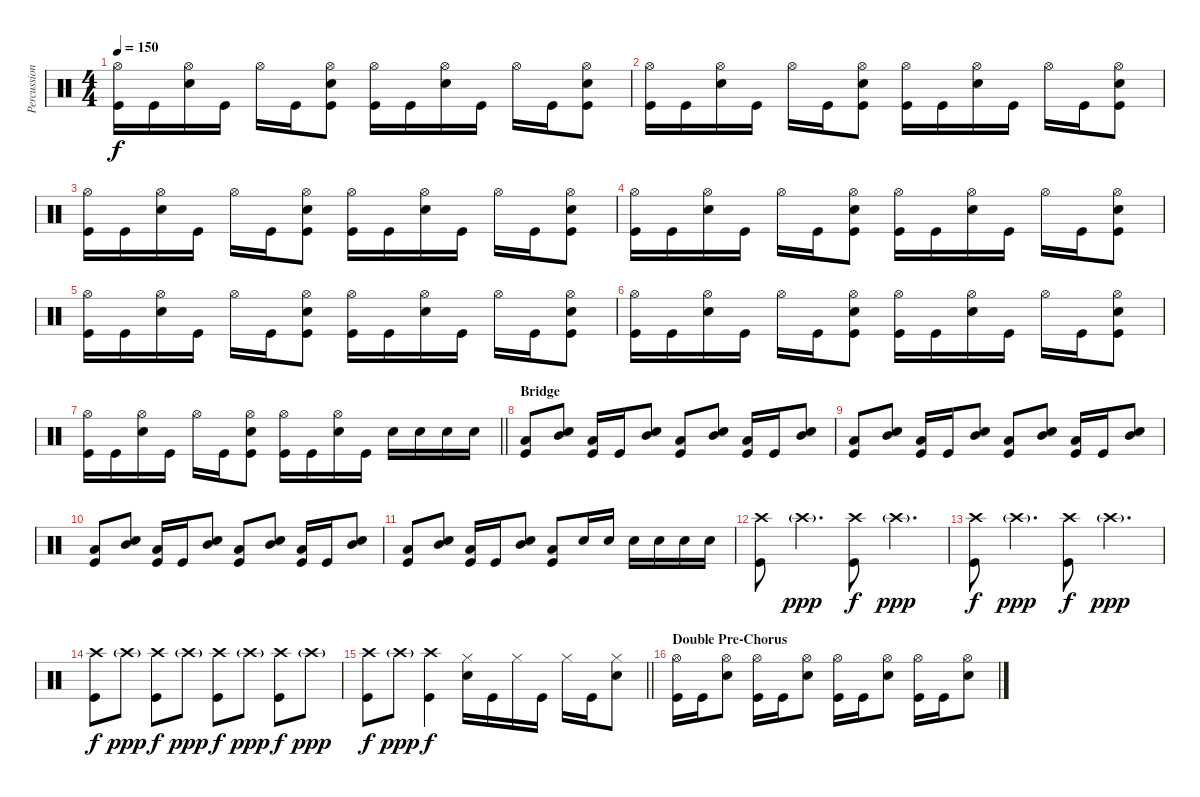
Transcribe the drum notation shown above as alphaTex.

\track ("Percussion" "Percussion") {instrument percussion}
\staff {score}
\articulation defaults
\ts (4 4)
\tempo 150
\clef neutral
\ks c
("Hi-Hat (open)" "Kick (hit)").16{dy f} "Kick (hit)".16 ("Hi-Hat (open)" "Electric Snare (hit)").16 "Kick (hit)".16 "Hi-Hat (open)".16 "Kick (hit)".16 ("Hi-Hat (open)" "Electric Snare (hit)" "Kick (hit)").8 ("Hi-Hat (open)" "Kick (hit)").16 "Kick (hit)".16 ("Hi-Hat (open)" "Electric Snare (hit)").16 "Kick (hit)".16 "Hi-Hat (open)".16 "Kick (hit)".16 ("Hi-Hat (open)" "Electric Snare (hit)" "Kick (hit)").8 |
("Hi-Hat (open)" "Kick (hit)").16 "Kick (hit)".16 ("Hi-Hat (open)" "Electric Snare (hit)").16 "Kick (hit)".16 "Hi-Hat (open)".16 "Kick (hit)".16 ("Hi-Hat (open)" "Electric Snare (hit)" "Kick (hit)").8 ("Hi-Hat (open)" "Kick (hit)").16 "Kick (hit)".16 ("Hi-Hat (open)" "Electric Snare (hit)").16 "Kick (hit)".16 "Hi-Hat (open)".16 "Kick (hit)".16 ("Hi-Hat (open)" "Electric Snare (hit)" "Kick (hit)").8 |
("Hi-Hat (open)" "Kick (hit)").16 "Kick (hit)".16 ("Hi-Hat (open)" "Electric Snare (hit)").16 "Kick (hit)".16 "Hi-Hat (open)".16 "Kick (hit)".16 ("Hi-Hat (open)" "Electric Snare (hit)" "Kick (hit)").8 ("Hi-Hat (open)" "Kick (hit)").16 "Kick (hit)".16 ("Hi-Hat (open)" "Electric Snare (hit)").16 "Kick (hit)".16 "Hi-Hat (open)".16 "Kick (hit)".16 ("Hi-Hat (open)" "Electric Snare (hit)" "Kick (hit)").8 |
("Hi-Hat (open)" "Kick (hit)").16 "Kick (hit)".16 ("Hi-Hat (open)" "Electric Snare (hit)").16 "Kick (hit)".16 "Hi-Hat (open)".16 "Kick (hit)".16 ("Hi-Hat (open)" "Electric Snare (hit)" "Kick (hit)").8 ("Hi-Hat (open)" "Kick (hit)").16 "Kick (hit)".16 ("Hi-Hat (open)" "Electric Snare (hit)").16 "Kick (hit)".16 "Hi-Hat (open)".16 "Kick (hit)".16 ("Hi-Hat (open)" "Electric Snare (hit)" "Kick (hit)").8 |
("Hi-Hat (open)" "Kick (hit)").16 "Kick (hit)".16 ("Hi-Hat (open)" "Electric Snare (hit)").16 "Kick (hit)".16 "Hi-Hat (open)".16 "Kick (hit)".16 ("Hi-Hat (open)" "Electric Snare (hit)" "Kick (hit)").8 ("Hi-Hat (open)" "Kick (hit)").16 "Kick (hit)".16 ("Hi-Hat (open)" "Electric Snare (hit)").16 "Kick (hit)".16 "Hi-Hat (open)".16 "Kick (hit)".16 ("Hi-Hat (open)" "Electric Snare (hit)" "Kick (hit)").8 |
("Hi-Hat (open)" "Kick (hit)").16 "Kick (hit)".16 ("Hi-Hat (open)" "Electric Snare (hit)").16 "Kick (hit)".16 "Hi-Hat (open)".16 "Kick (hit)".16 ("Hi-Hat (open)" "Electric Snare (hit)" "Kick (hit)").8 ("Hi-Hat (open)" "Kick (hit)").16 "Kick (hit)".16 ("Hi-Hat (open)" "Electric Snare (hit)").16 "Kick (hit)".16 "Hi-Hat (open)".16 "Kick (hit)".16 ("Hi-Hat (open)" "Electric Snare (hit)" "Kick (hit)").8 |
\barLineRight lightlight
("Hi-Hat (open)" "Kick (hit)").16 "Kick (hit)".16 ("Hi-Hat (open)" "Electric Snare (hit)").16 "Kick (hit)".16 "Hi-Hat (open)".16 "Kick (hit)".16 ("Hi-Hat (open)" "Electric Snare (hit)" "Kick (hit)").8 ("Hi-Hat (open)" "Kick (hit)").16 "Kick (hit)".16 ("Hi-Hat (open)" "Electric Snare (hit)").16 "Kick (hit)".16 "Electric Snare (hit)".16 "Electric Snare (hit)".16 "Electric Snare (hit)".16 "Electric Snare (hit)".16 |
\section ("" "Bridge")
("Low Tom (hit)" "Kick (hit)").8 ("Electric Snare (hit)" "Mid Tom (hit)").8 ("Low Tom (hit)" "Kick (hit)").16 "Kick (hit)".16 ("Electric Snare (hit)" "Mid Tom (hit)").8 ("Low Tom (hit)" "Kick (hit)").8 ("Electric Snare (hit)" "Mid Tom (hit)").8 ("Low Tom (hit)" "Kick (hit)").16 "Kick (hit)".16 ("Electric Snare (hit)" "Mid Tom (hit)").8 |
("Low Tom (hit)" "Kick (hit)").8 ("Electric Snare (hit)" "Mid Tom (hit)").8 ("Low Tom (hit)" "Kick (hit)").16 "Kick (hit)".16 ("Electric Snare (hit)" "Mid Tom (hit)").8 ("Low Tom (hit)" "Kick (hit)").8 ("Electric Snare (hit)" "Mid Tom (hit)").8 ("Low Tom (hit)" "Kick (hit)").16 "Kick (hit)".16 ("Electric Snare (hit)" "Mid Tom (hit)").8 |
("Low Tom (hit)" "Kick (hit)").8 ("Electric Snare (hit)" "Mid Tom (hit)").8 ("Low Tom (hit)" "Kick (hit)").16 "Kick (hit)".16 ("Electric Snare (hit)" "Mid Tom (hit)").8 ("Low Tom (hit)" "Kick (hit)").8 ("Electric Snare (hit)" "Mid Tom (hit)").8 ("Low Tom (hit)" "Kick (hit)").16 "Kick (hit)".16 ("Electric Snare (hit)" "Mid Tom (hit)").8 |
("Low Tom (hit)" "Kick (hit)").8 ("Electric Snare (hit)" "Mid Tom (hit)").8 ("Low Tom (hit)" "Kick (hit)").16 "Kick (hit)".16 ("Electric Snare (hit)" "Mid Tom (hit)").8 ("Low Tom (hit)" "Kick (hit)").8 "Electric Snare (hit)".16 "Electric Snare (hit)".16 "Electric Snare (hit)".16 "Electric Snare (hit)".16 "Electric Snare (hit)".16 "Electric Snare (hit)".16 |
("Crash high (hit)" "Kick (hit)").8 "Crash high (hit)"{g}.4{d dy ppp volume 0} ("Crash high (hit)" "Kick (hit)").8{dy f volume 13} "Crash high (hit)"{g}.4{d dy ppp volume 0} |
("Crash high (hit)" "Kick (hit)").8{dy f volume 13} "Crash high (hit)"{g}.4{d dy ppp volume 0} ("Crash high (hit)" "Kick (hit)").8{dy f volume 13} "Crash high (hit)"{g}.4{d dy ppp volume 0} |
("Crash high (hit)" "Kick (hit)").8{dy f volume 13} "Crash high (hit)"{g}.8{dy ppp volume 0} ("Crash high (hit)" "Kick (hit)").8{dy f volume 13} "Crash high (hit)"{g}.8{dy ppp volume 0} ("Crash high (hit)" "Kick (hit)").8{dy f volume 13} "Crash high (hit)"{g}.8{dy ppp volume 0} ("Crash high (hit)" "Kick (hit)").8{dy f volume 13} "Crash high (hit)"{g}.8{dy ppp volume 0} |
\barLineRight lightlight
("Crash high (hit)" "Kick (hit)").8{dy f volume 13} "Crash high (hit)"{g}.8{dy ppp volume 0} ("Crash high (hit)" "Kick (hit)").4{dy f volume 13} ("Hi-Hat (closed)" "Electric Snare (hit)").16 "Kick (hit)".16 "Hi-Hat (closed)".16 "Kick (hit)".16 "Hi-Hat (closed)".16 "Kick (hit)".16 ("Hi-Hat (closed)" "Electric Snare (hit)").8 |
\section ("" "Double Pre-Chorus")
("Hi-Hat (open)" "Kick (hit)").16 "Kick (hit)".16 ("Hi-Hat (open)" "Electric Snare (hit)").8 ("Hi-Hat (open)" "Kick (hit)").16 "Kick (hit)".16 ("Hi-Hat (open)" "Electric Snare (hit)").8 ("Hi-Hat (open)" "Kick (hit)").16 "Kick (hit)".16 ("Hi-Hat (open)" "Electric Snare (hit)").8 ("Hi-Hat (open)" "Kick (hit)").16 "Kick (hit)".16 ("Hi-Hat (open)" "Electric Snare (hit)").8
